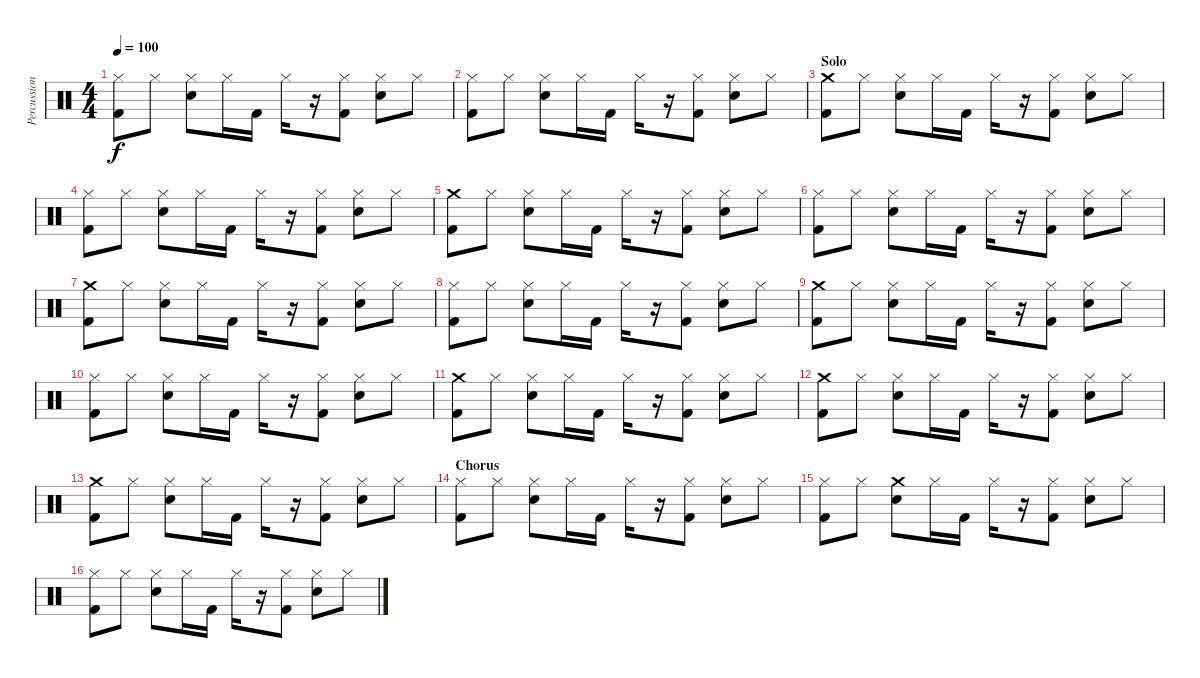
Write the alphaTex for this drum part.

\track ("Percussion" "Percussion") {instrument percussion}
\staff {score}
\articulation defaults
\ts (4 4)
\tempo 100
\clef neutral
\ks c
("Hi-Hat (closed)" "Kick (hit) 2").8{dy f} "Hi-Hat (closed)".8 ("Hi-Hat (closed)" "Electric Snare (hit)").8 "Hi-Hat (closed)".16 "Kick (hit) 2".16 "Hi-Hat (closed)".16 r.16 ("Hi-Hat (closed)" "Kick (hit) 2").8 ("Hi-Hat (closed)" "Electric Snare (hit)").8 "Hi-Hat (closed)".8 |
("Hi-Hat (closed)" "Kick (hit) 2").8 "Hi-Hat (closed)".8 ("Hi-Hat (closed)" "Electric Snare (hit)").8 "Hi-Hat (closed)".16 "Kick (hit) 2".16 "Hi-Hat (closed)".16 r.16 ("Hi-Hat (closed)" "Kick (hit) 2").8 ("Hi-Hat (closed)" "Electric Snare (hit)").8 "Hi-Hat (closed)".8 |
\section ("" "Solo")
("Crash medium (hit)" "Kick (hit) 2").8 "Hi-Hat (closed)".8 ("Hi-Hat (closed)" "Electric Snare (hit)").8 "Hi-Hat (closed)".16 "Kick (hit) 2".16 "Hi-Hat (closed)".16 r.16 ("Hi-Hat (closed)" "Kick (hit) 2").8 ("Hi-Hat (closed)" "Electric Snare (hit)").8 "Hi-Hat (closed)".8 |
("Hi-Hat (closed)" "Kick (hit) 2").8 "Hi-Hat (closed)".8 ("Hi-Hat (closed)" "Electric Snare (hit)").8 "Hi-Hat (closed)".16 "Kick (hit) 2".16 "Hi-Hat (closed)".16 r.16 ("Hi-Hat (closed)" "Kick (hit) 2").8 ("Hi-Hat (closed)" "Electric Snare (hit)").8 "Hi-Hat (closed)".8 |
("Crash medium (hit)" "Kick (hit) 2").8 "Hi-Hat (closed)".8 ("Hi-Hat (closed)" "Electric Snare (hit)").8 "Hi-Hat (closed)".16 "Kick (hit) 2".16 "Hi-Hat (closed)".16 r.16 ("Hi-Hat (closed)" "Kick (hit) 2").8 ("Hi-Hat (closed)" "Electric Snare (hit)").8 "Hi-Hat (closed)".8 |
("Hi-Hat (closed)" "Kick (hit) 2").8 "Hi-Hat (closed)".8 ("Hi-Hat (closed)" "Electric Snare (hit)").8 "Hi-Hat (closed)".16 "Kick (hit) 2".16 "Hi-Hat (closed)".16 r.16 ("Hi-Hat (closed)" "Kick (hit) 2").8 ("Hi-Hat (closed)" "Electric Snare (hit)").8 "Hi-Hat (closed)".8 |
("Crash medium (hit)" "Kick (hit) 2").8 "Hi-Hat (closed)".8 ("Hi-Hat (closed)" "Electric Snare (hit)").8 "Hi-Hat (closed)".16 "Kick (hit) 2".16 "Hi-Hat (closed)".16 r.16 ("Hi-Hat (closed)" "Kick (hit) 2").8 ("Hi-Hat (closed)" "Electric Snare (hit)").8 "Hi-Hat (closed)".8 |
("Hi-Hat (closed)" "Kick (hit) 2").8 "Hi-Hat (closed)".8 ("Hi-Hat (closed)" "Electric Snare (hit)").8 "Hi-Hat (closed)".16 "Kick (hit) 2".16 "Hi-Hat (closed)".16 r.16 ("Hi-Hat (closed)" "Kick (hit) 2").8 ("Hi-Hat (closed)" "Electric Snare (hit)").8 "Hi-Hat (closed)".8 |
("Crash medium (hit)" "Kick (hit) 2").8 "Hi-Hat (closed)".8 ("Hi-Hat (closed)" "Electric Snare (hit)").8 "Hi-Hat (closed)".16 "Kick (hit) 2".16 "Hi-Hat (closed)".16 r.16 ("Hi-Hat (closed)" "Kick (hit) 2").8 ("Hi-Hat (closed)" "Electric Snare (hit)").8 "Hi-Hat (closed)".8 |
("Hi-Hat (closed)" "Kick (hit) 2").8 "Hi-Hat (closed)".8 ("Hi-Hat (closed)" "Electric Snare (hit)").8 "Hi-Hat (closed)".16 "Kick (hit) 2".16 "Hi-Hat (closed)".16 r.16 ("Hi-Hat (closed)" "Kick (hit) 2").8 ("Hi-Hat (closed)" "Electric Snare (hit)").8 "Hi-Hat (closed)".8 |
("Crash medium (hit)" "Kick (hit) 2").8 "Hi-Hat (closed)".8 ("Hi-Hat (closed)" "Electric Snare (hit)").8 "Hi-Hat (closed)".16 "Kick (hit) 2".16 "Hi-Hat (closed)".16 r.16 ("Hi-Hat (closed)" "Kick (hit) 2").8 ("Hi-Hat (closed)" "Electric Snare (hit)").8 "Hi-Hat (closed)".8 |
("Crash medium (hit)" "Kick (hit) 2").8 "Hi-Hat (closed)".8 ("Hi-Hat (closed)" "Electric Snare (hit)").8 "Hi-Hat (closed)".16 "Kick (hit) 2".16 "Hi-Hat (closed)".16 r.16 ("Hi-Hat (closed)" "Kick (hit) 2").8 ("Hi-Hat (closed)" "Electric Snare (hit)").8 "Hi-Hat (closed)".8 |
("Crash medium (hit)" "Kick (hit) 2").8 "Hi-Hat (closed)".8 ("Hi-Hat (closed)" "Electric Snare (hit)").8 "Hi-Hat (closed)".16 "Kick (hit) 2".16 "Hi-Hat (closed)".16 r.16 ("Hi-Hat (closed)" "Kick (hit) 2").8 ("Hi-Hat (closed)" "Electric Snare (hit)").8 "Hi-Hat (closed)".8 |
\section ("" "Chorus")
("Hi-Hat (closed)" "Kick (hit) 2").8 "Hi-Hat (closed)".8 ("Hi-Hat (closed)" "Electric Snare (hit)").8 "Hi-Hat (closed)".16 "Kick (hit) 2".16 "Hi-Hat (closed)".16 r.16 ("Hi-Hat (closed)" "Kick (hit) 2").8 ("Hi-Hat (closed)" "Electric Snare (hit)").8 "Hi-Hat (closed)".8 |
("Hi-Hat (closed)" "Kick (hit) 2").8 "Hi-Hat (closed)".8 ("Crash medium (hit)" "Electric Snare (hit)").8 "Hi-Hat (closed)".16 "Kick (hit) 2".16 "Hi-Hat (closed)".16 r.16 ("Hi-Hat (closed)" "Kick (hit) 2").8 ("Hi-Hat (closed)" "Electric Snare (hit)").8 "Hi-Hat (closed)".8 |
("Hi-Hat (closed)" "Kick (hit) 2").8 "Hi-Hat (closed)".8 ("Hi-Hat (closed)" "Electric Snare (hit)").8 "Hi-Hat (closed)".16 "Kick (hit) 2".16 "Hi-Hat (closed)".16 r.16 ("Hi-Hat (closed)" "Kick (hit) 2").8 ("Hi-Hat (closed)" "Electric Snare (hit)").8 "Hi-Hat (closed)".8
